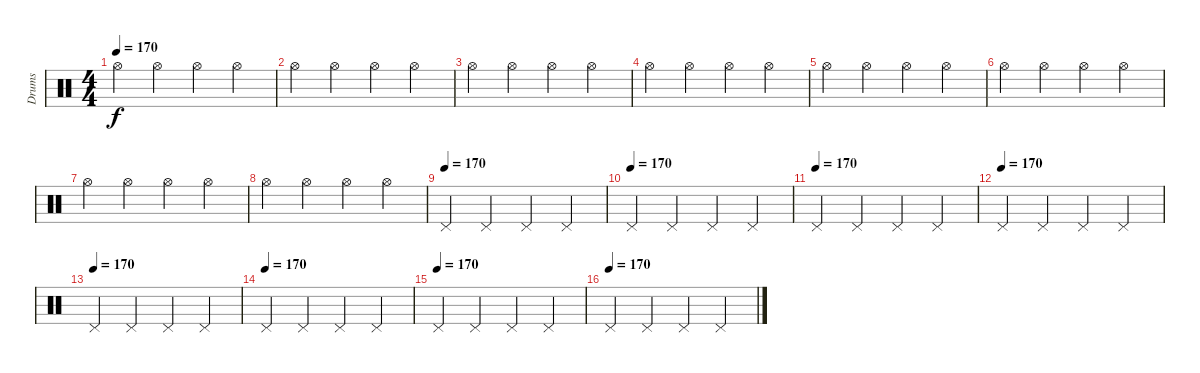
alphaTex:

\track ("Drums" "Drums") {instrument percussion}
\staff {score}
\articulation defaults
\ts (4 4)
\tempo 170
\clef neutral
\ks c "Hi-Hat (open)".4{dy f} "Hi-Hat (open)".4 "Hi-Hat (open)".4 "Hi-Hat (open)".4
|
"Hi-Hat (open)".4 "Hi-Hat (open)".4 "Hi-Hat (open)".4 "Hi-Hat (open)".4 |
"Hi-Hat (open)".4 "Hi-Hat (open)".4 "Hi-Hat (open)".4 "Hi-Hat (open)".4 |
"Hi-Hat (open)".4 "Hi-Hat (open)".4 "Hi-Hat (open)".4 "Hi-Hat (open)".4 |
"Hi-Hat (open)".4 "Hi-Hat (open)".4 "Hi-Hat (open)".4 "Hi-Hat (open)".4 |
"Hi-Hat (open)".4 "Hi-Hat (open)".4 "Hi-Hat (open)".4 "Hi-Hat (open)".4 |
"Hi-Hat (open)".4 "Hi-Hat (open)".4 "Hi-Hat (open)".4 "Hi-Hat (open)".4 |
"Hi-Hat (open)".4 "Hi-Hat (open)".4 "Hi-Hat (open)".4 "Hi-Hat (open)".4 |
\tempo (170)
"Pedal Hi-Hat (hit)".4 "Pedal Hi-Hat (hit)".4 "Pedal Hi-Hat (hit)".4 "Pedal Hi-Hat (hit)".4 |
\tempo (170)
"Pedal Hi-Hat (hit)".4 "Pedal Hi-Hat (hit)".4 "Pedal Hi-Hat (hit)".4 "Pedal Hi-Hat (hit)".4 |
\tempo (170)
"Pedal Hi-Hat (hit)".4 "Pedal Hi-Hat (hit)".4 "Pedal Hi-Hat (hit)".4 "Pedal Hi-Hat (hit)".4 |
\tempo (170)
"Pedal Hi-Hat (hit)".4 "Pedal Hi-Hat (hit)".4 "Pedal Hi-Hat (hit)".4 "Pedal Hi-Hat (hit)".4 |
\tempo (170)
"Pedal Hi-Hat (hit)".4 "Pedal Hi-Hat (hit)".4 "Pedal Hi-Hat (hit)".4 "Pedal Hi-Hat (hit)".4 |
\tempo (170)
"Pedal Hi-Hat (hit)".4 "Pedal Hi-Hat (hit)".4 "Pedal Hi-Hat (hit)".4 "Pedal Hi-Hat (hit)".4 |
\tempo (170)
"Pedal Hi-Hat (hit)".4 "Pedal Hi-Hat (hit)".4 "Pedal Hi-Hat (hit)".4 "Pedal Hi-Hat (hit)".4 |
\tempo (170)
"Pedal Hi-Hat (hit)".4 "Pedal Hi-Hat (hit)".4 "Pedal Hi-Hat (hit)".4 "Pedal Hi-Hat (hit)".4
